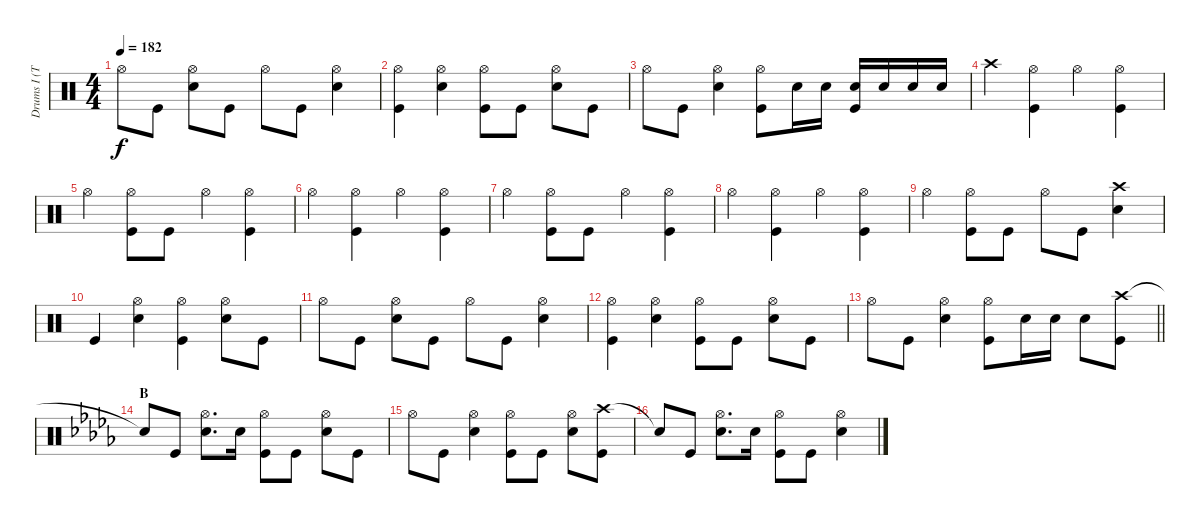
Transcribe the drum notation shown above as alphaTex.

\track ("Drums I (Tainaka Ritsu)" "Drums I (T") {instrument percussion}
\staff {score}
\articulation defaults
\ts (4 4)
\tempo 182
\clef neutral
\ks c "Hi-Hat (open)".8{dy f} "Kick (hit)".8
("Hi-Hat (open)" "Snare (hit) 2").8 "Kick (hit)".8 "Hi-Hat (open)".8 "Kick (hit)".8 ("Hi-Hat (open)" "Snare (hit) 2").4 |
("Hi-Hat (open)" "Kick (hit)").4 ("Hi-Hat (open)" "Snare (hit) 2").4 ("Hi-Hat (open)" "Kick (hit)").8 "Kick (hit)".8 ("Hi-Hat (open)" "Snare (hit) 2").8 "Kick (hit)".8 |
"Hi-Hat (open)".8 "Kick (hit)".8 ("Hi-Hat (open)" "Snare (hit) 2").4 ("Hi-Hat (open)" "Kick (hit)").8 "Snare (hit) 2".16 "Snare (hit) 2".16 ("Snare (hit) 2" "Kick (hit)").16 "Snare (hit) 2".16 "Snare (hit) 2".16 "Snare (hit) 2".16 |
"Crash high (hit)".4 ("Hi-Hat (open)" "Kick (hit)").4 "Hi-Hat (open)".4 ("Hi-Hat (open)" "Kick (hit)").4 |
"Hi-Hat (open)".4 ("Hi-Hat (open)" "Kick (hit)").8 "Kick (hit)".8 "Hi-Hat (open)".4 ("Hi-Hat (open)" "Kick (hit)").4 |
"Hi-Hat (open)".4 ("Hi-Hat (open)" "Kick (hit)").4 "Hi-Hat (open)".4 ("Hi-Hat (open)" "Kick (hit)").4 |
"Hi-Hat (open)".4 ("Hi-Hat (open)" "Kick (hit)").8 "Kick (hit)".8 "Hi-Hat (open)".4 ("Hi-Hat (open)" "Kick (hit)").4 |
"Hi-Hat (open)".4 ("Hi-Hat (open)" "Kick (hit)").4 "Hi-Hat (open)".4 ("Hi-Hat (open)" "Kick (hit)").4 |
"Hi-Hat (open)".4 ("Hi-Hat (open)" "Kick (hit)").8 "Kick (hit)".8 "Hi-Hat (open)".8 "Kick (hit)".8 ("Crash high (hit)" "Snare (hit) 2").4 |
"Kick (hit)".4 ("Hi-Hat (open)" "Snare (hit) 2").4 ("Hi-Hat (open)" "Kick (hit)").4 ("Hi-Hat (open)" "Snare (hit) 2").8 "Kick (hit)".8 |
"Hi-Hat (open)".8 "Kick (hit)".8 ("Hi-Hat (open)" "Snare (hit) 2").8 "Kick (hit)".8 "Hi-Hat (open)".8 "Kick (hit)".8 ("Hi-Hat (open)" "Snare (hit) 2").4 |
("Hi-Hat (open)" "Kick (hit)").4 ("Hi-Hat (open)" "Snare (hit) 2").4 ("Hi-Hat (open)" "Kick (hit)").8 "Kick (hit)".8 ("Hi-Hat (open)" "Snare (hit) 2").8 "Kick (hit)".8 |
\barLineRight lightlight "Hi-Hat (open)".8 "Kick (hit)".8
("Hi-Hat (open)" "Snare (hit) 2").4 ("Hi-Hat (open)" "Kick (hit)").8 "Snare (hit) 2".16 "Snare (hit) 2".16 "Snare (hit) 2".8 ("Crash high (hit)" "Kick (hit)").8 |
\section ("" "B")
\ks db "Snare (hit)"{t}.8 "Kick (hit)".8
("Hi-Hat (open)" "Snare (hit) 2").8{d} "Snare (hit) 2".16 ("Hi-Hat (open)" "Kick (hit)").8 "Kick (hit)".8 ("Hi-Hat (open)" "Snare (hit) 2").8 "Kick (hit)".8 |
"Hi-Hat (open)".8 "Kick (hit)".8 ("Hi-Hat (open)" "Snare (hit) 2").4 ("Hi-Hat (open)" "Kick (hit)").8 "Kick (hit)".8 ("Hi-Hat (open)" "Snare (hit) 2").8 ("Crash high (hit)" "Kick (hit)").8 |
"Snare (hit)"{t}.8 "Kick (hit)".8 ("Hi-Hat (open)" "Snare (hit) 2").8{d} "Snare (hit) 2".16 ("Hi-Hat (open)" "Kick (hit)").8 "Kick (hit)".8 ("Hi-Hat (open)" "Snare (hit) 2").4
